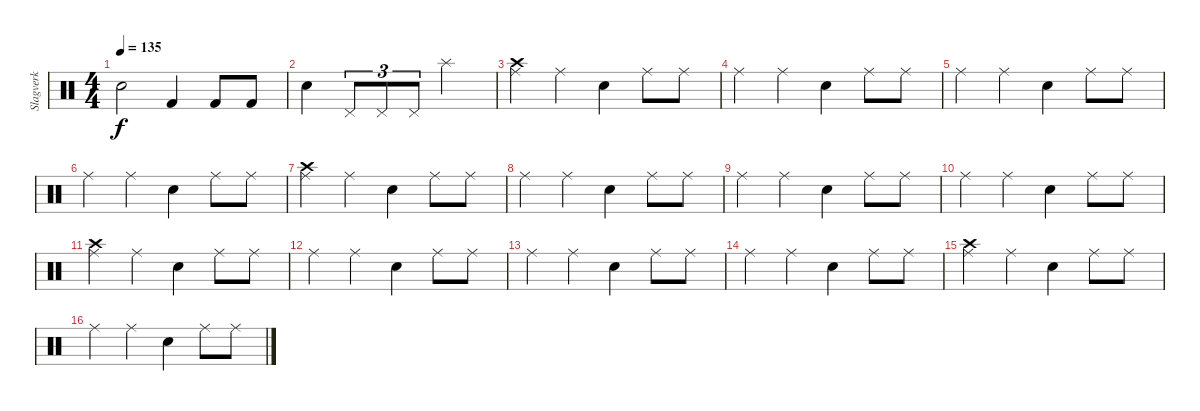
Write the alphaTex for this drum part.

\track ("Slagverk" "Slagverk") {instrument percussion}
\staff {score}
\articulation defaults
\ts (4 4)
\tempo 135
\clef neutral
\ks c "Snare (hit) 2".2{dy f} "Kick (hit) 2".4 "Kick (hit) 2".8 "Kick (hit) 2".8
|
"Snare (hit) 2".4 "Pedal Hi-Hat (hit)".8{tu (3 2)} "Pedal Hi-Hat (hit)".8{tu (3 2)} "Pedal Hi-Hat (hit)".8{tu (3 2)} "Splash (hit)".2 |
("Crash high (hit)" "Ride (middle)").4 "Ride (middle)".4 "Snare (hit) 2".4 "Ride (middle)".8 "Ride (middle)".8 |
"Ride (middle)".4 "Ride (middle)".4 "Snare (hit) 2".4 "Ride (middle)".8 "Ride (middle)".8 |
"Ride (middle)".4 "Ride (middle)".4 "Snare (hit) 2".4 "Ride (middle)".8 "Ride (middle)".8 |
"Ride (middle)".4 "Ride (middle)".4 "Snare (hit) 2".4 "Ride (middle)".8 "Ride (middle)".8 |
("Crash high (hit)" "Ride (middle)").4 "Ride (middle)".4 "Snare (hit) 2".4 "Ride (middle)".8 "Ride (middle)".8 |
"Ride (middle)".4 "Ride (middle)".4 "Snare (hit) 2".4 "Ride (middle)".8 "Ride (middle)".8 |
"Ride (middle)".4 "Ride (middle)".4 "Snare (hit) 2".4 "Ride (middle)".8 "Ride (middle)".8 |
"Ride (middle)".4 "Ride (middle)".4 "Snare (hit) 2".4 "Ride (middle)".8 "Ride (middle)".8 |
("Crash high (hit)" "Ride (middle)").4 "Ride (middle)".4 "Snare (hit) 2".4 "Ride (middle)".8 "Ride (middle)".8 |
"Ride (middle)".4 "Ride (middle)".4 "Snare (hit) 2".4 "Ride (middle)".8 "Ride (middle)".8 |
"Ride (middle)".4 "Ride (middle)".4 "Snare (hit) 2".4 "Ride (middle)".8 "Ride (middle)".8 |
"Ride (middle)".4 "Ride (middle)".4 "Snare (hit) 2".4 "Ride (middle)".8 "Ride (middle)".8 |
("Crash high (hit)" "Ride (middle)").4 "Ride (middle)".4 "Snare (hit) 2".4 "Ride (middle)".8 "Ride (middle)".8 |
"Ride (middle)".4 "Ride (middle)".4 "Snare (hit) 2".4 "Ride (middle)".8 "Ride (middle)".8
